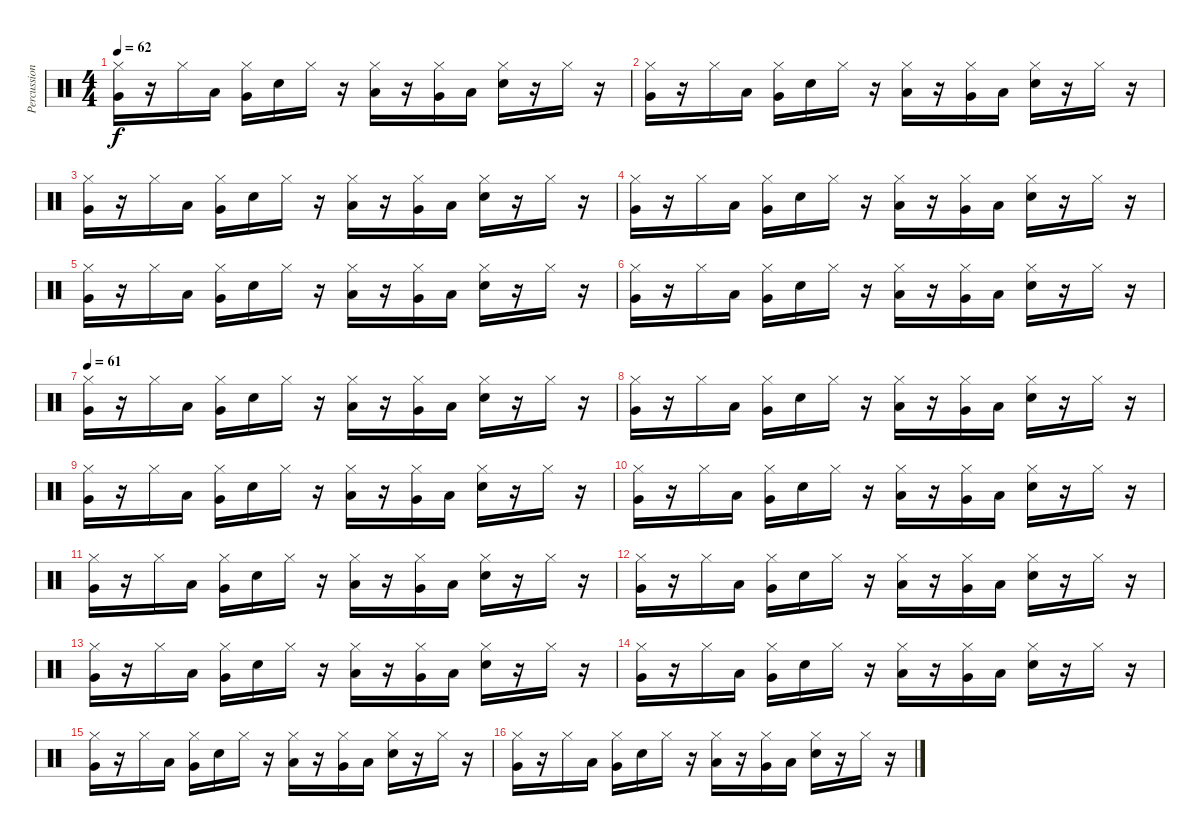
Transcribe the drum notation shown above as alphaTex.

\track ("Percussion" "Percussion") {instrument percussion}
\staff {score}
\articulation defaults
\ts (4 4)
\tempo 62
\clef neutral
\ks c
("Hi-Hat (closed)" "Very Low Tom (hit)").16{dy f} r.16 "Hi-Hat (closed)".16 "Low Floor Tom (hit)".16 ("Hi-Hat (closed)" "Very Low Tom (hit)").16 "Electric Snare (hit)".16 "Hi-Hat (closed)".16 r.16 ("Hi-Hat (closed)" "Low Floor Tom (hit)").16 r.16 ("Hi-Hat (closed)" "Very Low Tom (hit)").16 "Low Floor Tom (hit)".16 ("Hi-Hat (closed)" "Electric Snare (hit)").16 r.16 "Hi-Hat (closed)".16 r.16 |
("Hi-Hat (closed)" "Very Low Tom (hit)").16 r.16 "Hi-Hat (closed)".16 "Low Floor Tom (hit)".16 ("Hi-Hat (closed)" "Very Low Tom (hit)").16 "Electric Snare (hit)".16 "Hi-Hat (closed)".16 r.16 ("Hi-Hat (closed)" "Low Floor Tom (hit)").16 r.16 ("Hi-Hat (closed)" "Very Low Tom (hit)").16 "Low Floor Tom (hit)".16 ("Hi-Hat (closed)" "Electric Snare (hit)").16 r.16 "Hi-Hat (closed)".16 r.16 |
("Hi-Hat (closed)" "Very Low Tom (hit)").16 r.16 "Hi-Hat (closed)".16 "Low Floor Tom (hit)".16 ("Hi-Hat (closed)" "Very Low Tom (hit)").16 "Electric Snare (hit)".16 "Hi-Hat (closed)".16 r.16 ("Hi-Hat (closed)" "Low Floor Tom (hit)").16 r.16 ("Hi-Hat (closed)" "Very Low Tom (hit)").16 "Low Floor Tom (hit)".16 ("Hi-Hat (closed)" "Electric Snare (hit)").16 r.16 "Hi-Hat (closed)".16 r.16 |
("Hi-Hat (closed)" "Very Low Tom (hit)").16 r.16 "Hi-Hat (closed)".16 "Low Floor Tom (hit)".16 ("Hi-Hat (closed)" "Very Low Tom (hit)").16 "Electric Snare (hit)".16 "Hi-Hat (closed)".16 r.16 ("Hi-Hat (closed)" "Low Floor Tom (hit)").16 r.16 ("Hi-Hat (closed)" "Very Low Tom (hit)").16 "Low Floor Tom (hit)".16 ("Hi-Hat (closed)" "Electric Snare (hit)").16 r.16 "Hi-Hat (closed)".16 r.16 |
("Hi-Hat (closed)" "Very Low Tom (hit)").16 r.16 "Hi-Hat (closed)".16 "Low Floor Tom (hit)".16 ("Hi-Hat (closed)" "Very Low Tom (hit)").16 "Electric Snare (hit)".16 "Hi-Hat (closed)".16 r.16 ("Hi-Hat (closed)" "Low Floor Tom (hit)").16 r.16 ("Hi-Hat (closed)" "Very Low Tom (hit)").16 "Low Floor Tom (hit)".16 ("Hi-Hat (closed)" "Electric Snare (hit)").16 r.16 "Hi-Hat (closed)".16 r.16 |
("Hi-Hat (closed)" "Very Low Tom (hit)").16 r.16 "Hi-Hat (closed)".16 "Low Floor Tom (hit)".16 ("Hi-Hat (closed)" "Very Low Tom (hit)").16 "Electric Snare (hit)".16 "Hi-Hat (closed)".16 r.16 ("Hi-Hat (closed)" "Low Floor Tom (hit)").16 r.16 ("Hi-Hat (closed)" "Very Low Tom (hit)").16 "Low Floor Tom (hit)".16 ("Hi-Hat (closed)" "Electric Snare (hit)").16 r.16 "Hi-Hat (closed)".16 r.16 |
\tempo 61
("Hi-Hat (closed)" "Very Low Tom (hit)").16 r.16 "Hi-Hat (closed)".16 "Low Floor Tom (hit)".16 ("Hi-Hat (closed)" "Very Low Tom (hit)").16 "Electric Snare (hit)".16 "Hi-Hat (closed)".16 r.16 ("Hi-Hat (closed)" "Low Floor Tom (hit)").16 r.16 ("Hi-Hat (closed)" "Very Low Tom (hit)").16 "Low Floor Tom (hit)".16 ("Hi-Hat (closed)" "Electric Snare (hit)").16 r.16 "Hi-Hat (closed)".16 r.16 |
("Hi-Hat (closed)" "Very Low Tom (hit)").16 r.16 "Hi-Hat (closed)".16 "Low Floor Tom (hit)".16 ("Hi-Hat (closed)" "Very Low Tom (hit)").16 "Electric Snare (hit)".16 "Hi-Hat (closed)".16 r.16 ("Hi-Hat (closed)" "Low Floor Tom (hit)").16 r.16 ("Hi-Hat (closed)" "Very Low Tom (hit)").16 "Low Floor Tom (hit)".16 ("Hi-Hat (closed)" "Electric Snare (hit)").16 r.16 "Hi-Hat (closed)".16 r.16 |
("Hi-Hat (closed)" "Very Low Tom (hit)").16 r.16 "Hi-Hat (closed)".16 "Low Floor Tom (hit)".16 ("Hi-Hat (closed)" "Very Low Tom (hit)").16 "Electric Snare (hit)".16 "Hi-Hat (closed)".16 r.16 ("Hi-Hat (closed)" "Low Floor Tom (hit)").16 r.16 ("Hi-Hat (closed)" "Very Low Tom (hit)").16 "Low Floor Tom (hit)".16 ("Hi-Hat (closed)" "Electric Snare (hit)").16 r.16 "Hi-Hat (closed)".16 r.16 |
("Hi-Hat (closed)" "Very Low Tom (hit)").16 r.16 "Hi-Hat (closed)".16 "Low Floor Tom (hit)".16 ("Hi-Hat (closed)" "Very Low Tom (hit)").16 "Electric Snare (hit)".16 "Hi-Hat (closed)".16 r.16 ("Hi-Hat (closed)" "Low Floor Tom (hit)").16 r.16 ("Hi-Hat (closed)" "Very Low Tom (hit)").16 "Low Floor Tom (hit)".16 ("Hi-Hat (closed)" "Electric Snare (hit)").16 r.16 "Hi-Hat (closed)".16 r.16 |
("Hi-Hat (closed)" "Very Low Tom (hit)").16 r.16 "Hi-Hat (closed)".16 "Low Floor Tom (hit)".16 ("Hi-Hat (closed)" "Very Low Tom (hit)").16 "Electric Snare (hit)".16 "Hi-Hat (closed)".16 r.16 ("Hi-Hat (closed)" "Low Floor Tom (hit)").16 r.16 ("Hi-Hat (closed)" "Very Low Tom (hit)").16 "Low Floor Tom (hit)".16 ("Hi-Hat (closed)" "Electric Snare (hit)").16 r.16 "Hi-Hat (closed)".16 r.16 |
("Hi-Hat (closed)" "Very Low Tom (hit)").16 r.16 "Hi-Hat (closed)".16 "Low Floor Tom (hit)".16 ("Hi-Hat (closed)" "Very Low Tom (hit)").16 "Electric Snare (hit)".16 "Hi-Hat (closed)".16 r.16 ("Hi-Hat (closed)" "Low Floor Tom (hit)").16 r.16 ("Hi-Hat (closed)" "Very Low Tom (hit)").16 "Low Floor Tom (hit)".16 ("Hi-Hat (closed)" "Electric Snare (hit)").16 r.16 "Hi-Hat (closed)".16 r.16 |
("Hi-Hat (closed)" "Very Low Tom (hit)").16 r.16 "Hi-Hat (closed)".16 "Low Floor Tom (hit)".16 ("Hi-Hat (closed)" "Very Low Tom (hit)").16 "Electric Snare (hit)".16 "Hi-Hat (closed)".16 r.16 ("Hi-Hat (closed)" "Low Floor Tom (hit)").16 r.16 ("Hi-Hat (closed)" "Very Low Tom (hit)").16 "Low Floor Tom (hit)".16 ("Hi-Hat (closed)" "Electric Snare (hit)").16 r.16 "Hi-Hat (closed)".16 r.16 |
("Hi-Hat (closed)" "Very Low Tom (hit)").16 r.16 "Hi-Hat (closed)".16 "Low Floor Tom (hit)".16 ("Hi-Hat (closed)" "Very Low Tom (hit)").16 "Electric Snare (hit)".16 "Hi-Hat (closed)".16 r.16 ("Hi-Hat (closed)" "Low Floor Tom (hit)").16 r.16 ("Hi-Hat (closed)" "Very Low Tom (hit)").16 "Low Floor Tom (hit)".16 ("Hi-Hat (closed)" "Electric Snare (hit)").16 r.16 "Hi-Hat (closed)".16 r.16 |
("Hi-Hat (closed)" "Very Low Tom (hit)").16 r.16 "Hi-Hat (closed)".16 "Low Floor Tom (hit)".16 ("Hi-Hat (closed)" "Very Low Tom (hit)").16 "Electric Snare (hit)".16 "Hi-Hat (closed)".16 r.16 ("Hi-Hat (closed)" "Low Floor Tom (hit)").16 r.16 ("Hi-Hat (closed)" "Very Low Tom (hit)").16 "Low Floor Tom (hit)".16 ("Hi-Hat (closed)" "Electric Snare (hit)").16 r.16 "Hi-Hat (closed)".16 r.16 |
("Hi-Hat (closed)" "Very Low Tom (hit)").16 r.16 "Hi-Hat (closed)".16 "Low Floor Tom (hit)".16 ("Hi-Hat (closed)" "Very Low Tom (hit)").16 "Electric Snare (hit)".16 "Hi-Hat (closed)".16 r.16 ("Hi-Hat (closed)" "Low Floor Tom (hit)").16 r.16 ("Hi-Hat (closed)" "Very Low Tom (hit)").16 "Low Floor Tom (hit)".16 ("Hi-Hat (closed)" "Electric Snare (hit)").16 r.16 "Hi-Hat (closed)".16 r.16
